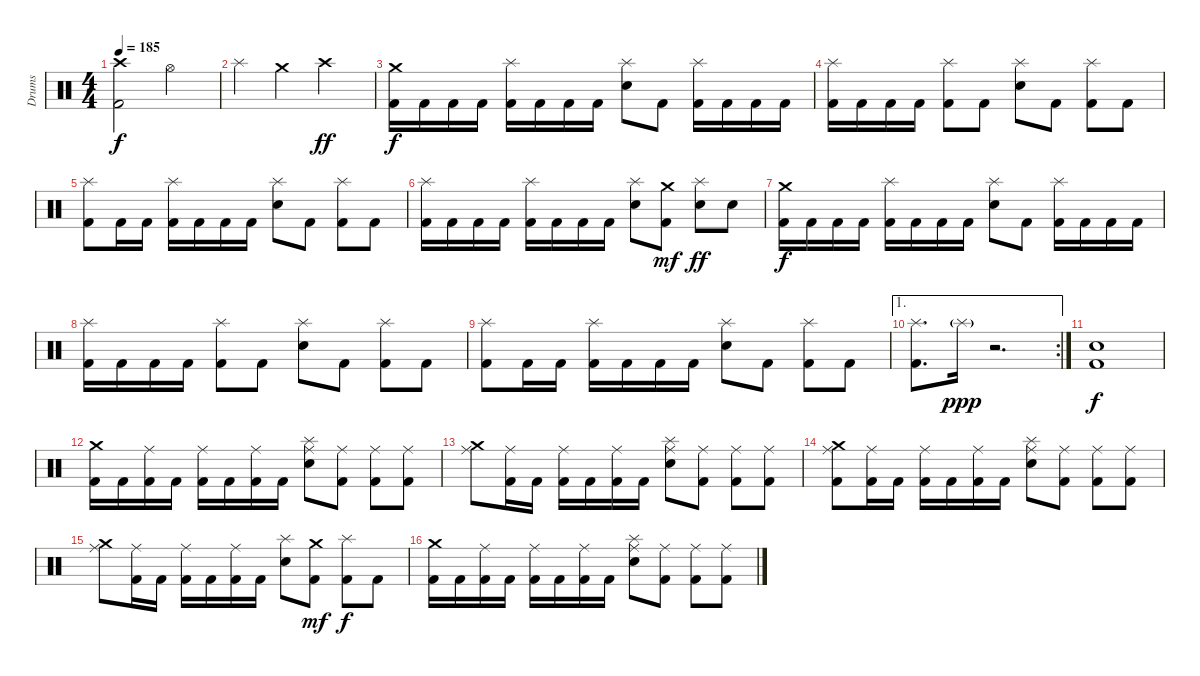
\track ("Drums" "Drums") {instrument percussion}
\staff {score}
\articulation defaults
\ts (4 4)
\tempo 185
\clef neutral
\ks c
("Crash high (hit)" "Kick (hit) 2").2{dy f} "Hi-Hat (open)".2 |
"Splash (hit)".4 "Crash medium (hit)".4 "Crash high (hit)".2{dy ff} |
("Crash medium (hit)" "Kick (hit) 2").16{dy f} "Kick (hit) 2".16 "Kick (hit) 2".16 "Kick (hit) 2".16 ("Splash (hit)" "Kick (hit) 2").16 "Kick (hit) 2".16 "Kick (hit) 2".16 "Kick (hit) 2".16 ("Splash (hit)" "Snare (hit) 2").8 "Kick (hit) 2".8 ("Splash (hit)" "Kick (hit) 2").16 "Kick (hit) 2".16 "Kick (hit) 2".16 "Kick (hit) 2".16 |
("Splash (hit)" "Kick (hit) 2").16 "Kick (hit) 2".16 "Kick (hit) 2".16 "Kick (hit) 2".16 ("Splash (hit)" "Kick (hit) 2").8 "Kick (hit) 2".8 ("Splash (hit)" "Snare (hit) 2").8 "Kick (hit) 2".8 ("Splash (hit)" "Kick (hit) 2").8 "Kick (hit) 2".8 |
("Splash (hit)" "Kick (hit) 2").8 "Kick (hit) 2".16 "Kick (hit) 2".16 ("Splash (hit)" "Kick (hit) 2").16 "Kick (hit) 2".16 "Kick (hit) 2".16 "Kick (hit) 2".16 ("Splash (hit)" "Snare (hit) 2").8 "Kick (hit) 2".8 ("Splash (hit)" "Kick (hit) 2").8 "Kick (hit) 2".8 |
("Splash (hit)" "Kick (hit) 2").16 "Kick (hit) 2".16 "Kick (hit) 2".16 "Kick (hit) 2".16 ("Splash (hit)" "Kick (hit) 2").16 "Kick (hit) 2".16 "Kick (hit) 2".16 "Kick (hit) 2".16 ("Splash (hit)" "Snare (hit) 2").8 ("Crash medium (hit)" "Kick (hit) 2").8{dy mf} ("Splash (hit)" "Snare (hit) 2").8{dy ff} "Snare (hit) 2".8 |
("Crash medium (hit)" "Kick (hit) 2").16{dy f} "Kick (hit) 2".16 "Kick (hit) 2".16 "Kick (hit) 2".16 ("Splash (hit)" "Kick (hit) 2").16 "Kick (hit) 2".16 "Kick (hit) 2".16 "Kick (hit) 2".16 ("Splash (hit)" "Snare (hit) 2").8 "Kick (hit) 2".8 ("Splash (hit)" "Kick (hit) 2").16 "Kick (hit) 2".16 "Kick (hit) 2".16 "Kick (hit) 2".16 |
("Splash (hit)" "Kick (hit) 2").16 "Kick (hit) 2".16 "Kick (hit) 2".16 "Kick (hit) 2".16 ("Splash (hit)" "Kick (hit) 2").8 "Kick (hit) 2".8 ("Splash (hit)" "Snare (hit) 2").8 "Kick (hit) 2".8 ("Splash (hit)" "Kick (hit) 2").8 "Kick (hit) 2".8 |
("Splash (hit)" "Kick (hit) 2").8 "Kick (hit) 2".16 "Kick (hit) 2".16 ("Splash (hit)" "Kick (hit) 2").16 "Kick (hit) 2".16 "Kick (hit) 2".16 "Kick (hit) 2".16 ("Splash (hit)" "Snare (hit) 2").8 "Kick (hit) 2".8 ("Splash (hit)" "Kick (hit) 2").8 "Kick (hit) 2".8 |
\ae 1
\rc 2
("Splash (hit)" "Kick (hit) 2").8{d} "Splash (hit)"{g}.16{dy ppp} r.2{d} |
("Snare (hit) 2" "Kick (hit) 2").1{dy f} |
("Crash medium (hit)" "Kick (hit) 2").16 "Kick (hit) 2".16 ("Ride (middle)" "Kick (hit) 2").16 "Kick (hit) 2".16 ("Ride (middle)" "Kick (hit) 2").16 "Kick (hit) 2".16 ("Ride (middle)" "Kick (hit) 2").16 "Kick (hit) 2".16 ("Ride (middle)" "Splash (hit)" "Snare (hit) 2").8 ("Ride (middle)" "Kick (hit) 2").8 ("Ride (middle)" "Kick (hit) 2").8 ("Ride (middle)" "Kick (hit) 2").8 |
("Ride (middle)" "Crash medium (hit)").8 ("Ride (middle)" "Kick (hit) 2").16 "Kick (hit) 2".16 ("Ride (middle)" "Kick (hit) 2").16 "Kick (hit) 2".16 ("Ride (middle)" "Kick (hit) 2").16 "Kick (hit) 2".16 ("Ride (middle)" "Splash (hit)" "Snare (hit) 2").8 ("Ride (middle)" "Kick (hit) 2").8 ("Ride (middle)" "Kick (hit) 2").8 ("Ride (middle)" "Kick (hit) 2").8 |
("Ride (middle)" "Crash medium (hit)" "Kick (hit) 2").8 ("Ride (middle)" "Kick (hit) 2").16 "Kick (hit) 2".16 ("Ride (middle)" "Kick (hit) 2").16 "Kick (hit) 2".16 ("Ride (middle)" "Kick (hit) 2").16 "Kick (hit) 2".16 ("Ride (middle)" "Splash (hit)" "Snare (hit) 2").8 ("Ride (middle)" "Kick (hit) 2").8 ("Ride (middle)" "Kick (hit) 2").8 ("Ride (middle)" "Kick (hit) 2").8 |
("Ride (middle)" "Crash medium (hit)").8 ("Ride (middle)" "Kick (hit) 2").16 "Kick (hit) 2".16 ("Ride (middle)" "Kick (hit) 2").16 "Kick (hit) 2".16 ("Ride (middle)" "Kick (hit) 2").16 "Kick (hit) 2".16 ("Splash (hit)" "Snare (hit) 2").8 ("Crash medium (hit)" "Kick (hit) 2").8{dy mf} ("Splash (hit)" "Kick (hit) 2").8{dy f} "Kick (hit) 2".8 |
("Crash medium (hit)" "Kick (hit) 2").16 "Kick (hit) 2".16 ("Ride (middle)" "Kick (hit) 2").16 "Kick (hit) 2".16 ("Ride (middle)" "Kick (hit) 2").16 "Kick (hit) 2".16 ("Ride (middle)" "Kick (hit) 2").16 "Kick (hit) 2".16 ("Ride (middle)" "Splash (hit)" "Snare (hit) 2").8 ("Ride (middle)" "Kick (hit) 2").8 ("Ride (middle)" "Kick (hit) 2").8 ("Ride (middle)" "Kick (hit) 2").8
